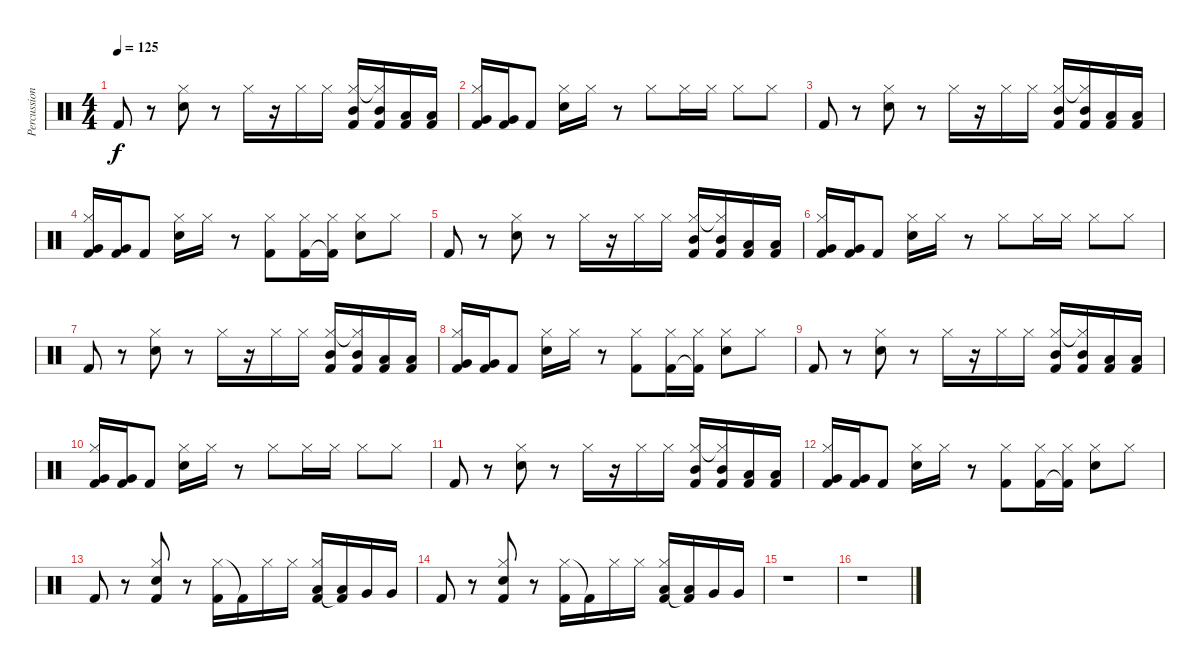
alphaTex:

\track ("Percussion" "Percussion") {instrument percussion}
\staff {score}
\articulation defaults
\ts (4 4)
\tempo 125
\clef neutral
\ks c "Kick (hit) 2".8{dy f}
r.8 ("Hi-Hat (closed)" "Electric Snare (hit)").8 r.8 "Hi-Hat (closed)".16 r.16 "Hi-Hat (closed)".16 "Hi-Hat (closed)".16 ("Hi-Hat (closed)" "Mid Tom (hit)" "Kick (hit) 2").16 ("Hi-Hat (closed)"{t} "Mid Tom (hit)" "Kick (hit) 2").16 ("Low Tom (hit)" "Kick (hit) 2").16 ("Low Tom (hit)" "Kick (hit) 2").16 |
("Hi-Hat (closed)" "Very Low Tom (hit)" "Kick (hit) 2").16 ("Very Low Tom (hit)" "Kick (hit) 2").16 "Kick (hit) 2".8 ("Hi-Hat (closed)" "Electric Snare (hit)").16 "Hi-Hat (closed)".16 r.8 "Hi-Hat (closed)".8 "Hi-Hat (closed)".16 "Hi-Hat (closed)".16 "Hi-Hat (closed)".8 "Hi-Hat (closed)".8 |
"Kick (hit) 2".8 r.8 ("Hi-Hat (closed)" "Electric Snare (hit)").8 r.8 "Hi-Hat (closed)".16 r.16 "Hi-Hat (closed)".16 "Hi-Hat (closed)".16 ("Hi-Hat (closed)" "Mid Tom (hit)" "Kick (hit) 2").16 ("Hi-Hat (closed)"{t} "Mid Tom (hit)" "Kick (hit) 2").16 ("Low Tom (hit)" "Kick (hit) 2").16 ("Low Tom (hit)" "Kick (hit) 2").16 |
("Hi-Hat (closed)" "Very Low Tom (hit)" "Kick (hit) 2").16 ("Very Low Tom (hit)" "Kick (hit) 2").16 "Kick (hit) 2".8 ("Hi-Hat (closed)" "Electric Snare (hit)").16 "Hi-Hat (closed)".16 r.8 ("Hi-Hat (closed)" "Kick (hit) 2").8 ("Hi-Hat (closed)" "Kick (hit) 2").16 ("Hi-Hat (closed)" "Kick (hit) 2"{t}).16 ("Hi-Hat (closed)" "Electric Snare (hit)").8 "Hi-Hat (closed)".8 |
"Kick (hit) 2".8 r.8 ("Hi-Hat (closed)" "Electric Snare (hit)").8 r.8 "Hi-Hat (closed)".16 r.16 "Hi-Hat (closed)".16 "Hi-Hat (closed)".16 ("Hi-Hat (closed)" "Mid Tom (hit)" "Kick (hit) 2").16 ("Hi-Hat (closed)"{t} "Mid Tom (hit)" "Kick (hit) 2").16 ("Low Tom (hit)" "Kick (hit) 2").16 ("Low Tom (hit)" "Kick (hit) 2").16 |
("Hi-Hat (closed)" "Very Low Tom (hit)" "Kick (hit) 2").16 ("Very Low Tom (hit)" "Kick (hit) 2").16 "Kick (hit) 2".8 ("Hi-Hat (closed)" "Electric Snare (hit)").16 "Hi-Hat (closed)".16 r.8 "Hi-Hat (closed)".8 "Hi-Hat (closed)".16 "Hi-Hat (closed)".16 "Hi-Hat (closed)".8 "Hi-Hat (closed)".8 |
"Kick (hit) 2".8 r.8 ("Hi-Hat (closed)" "Electric Snare (hit)").8 r.8 "Hi-Hat (closed)".16 r.16 "Hi-Hat (closed)".16 "Hi-Hat (closed)".16 ("Hi-Hat (closed)" "Mid Tom (hit)" "Kick (hit) 2").16 ("Hi-Hat (closed)"{t} "Mid Tom (hit)" "Kick (hit) 2").16 ("Low Tom (hit)" "Kick (hit) 2").16 ("Low Tom (hit)" "Kick (hit) 2").16 |
("Hi-Hat (closed)" "Very Low Tom (hit)" "Kick (hit) 2").16 ("Very Low Tom (hit)" "Kick (hit) 2").16 "Kick (hit) 2".8 ("Hi-Hat (closed)" "Electric Snare (hit)").16 "Hi-Hat (closed)".16 r.8 ("Hi-Hat (closed)" "Kick (hit) 2").8 ("Hi-Hat (closed)" "Kick (hit) 2").16 ("Hi-Hat (closed)" "Kick (hit) 2"{t}).16 ("Hi-Hat (closed)" "Electric Snare (hit)").8 "Hi-Hat (closed)".8 |
"Kick (hit) 2".8 r.8 ("Hi-Hat (closed)" "Electric Snare (hit)").8 r.8 "Hi-Hat (closed)".16 r.16 "Hi-Hat (closed)".16 "Hi-Hat (closed)".16 ("Hi-Hat (closed)" "Mid Tom (hit)" "Kick (hit) 2").16 ("Hi-Hat (closed)"{t} "Mid Tom (hit)" "Kick (hit) 2").16 ("Low Tom (hit)" "Kick (hit) 2").16 ("Low Tom (hit)" "Kick (hit) 2").16 |
("Hi-Hat (closed)" "Very Low Tom (hit)" "Kick (hit) 2").16 ("Very Low Tom (hit)" "Kick (hit) 2").16 "Kick (hit) 2".8 ("Hi-Hat (closed)" "Electric Snare (hit)").16 "Hi-Hat (closed)".16 r.8 "Hi-Hat (closed)".8 "Hi-Hat (closed)".16 "Hi-Hat (closed)".16 "Hi-Hat (closed)".8 "Hi-Hat (closed)".8 |
"Kick (hit) 2".8 r.8 ("Hi-Hat (closed)" "Electric Snare (hit)").8 r.8 "Hi-Hat (closed)".16 r.16 "Hi-Hat (closed)".16 "Hi-Hat (closed)".16 ("Hi-Hat (closed)" "Mid Tom (hit)" "Kick (hit) 2").16 ("Hi-Hat (closed)"{t} "Mid Tom (hit)" "Kick (hit) 2").16 ("Low Tom (hit)" "Kick (hit) 2").16 ("Low Tom (hit)" "Kick (hit) 2").16 |
("Hi-Hat (closed)" "Very Low Tom (hit)" "Kick (hit) 2").16 ("Very Low Tom (hit)" "Kick (hit) 2").16 "Kick (hit) 2".8 ("Hi-Hat (closed)" "Electric Snare (hit)").16 "Hi-Hat (closed)".16 r.8 ("Hi-Hat (closed)" "Kick (hit) 2").8 ("Hi-Hat (closed)" "Kick (hit) 2").16 ("Hi-Hat (closed)" "Kick (hit) 2"{t}).16 ("Hi-Hat (closed)" "Electric Snare (hit)").8 "Hi-Hat (closed)".8 |
"Kick (hit) 2".8 r.8 ("Hi-Hat (closed)" "Electric Snare (hit)" "Kick (hit) 2").8 r.8 ("Hi-Hat (closed)" "Kick (hit) 2").16 "Kick (hit) 2"{t}.16 "Hi-Hat (closed)".16 "Hi-Hat (closed)".16 ("Hi-Hat (closed)" "Low Tom (hit)" "Kick (hit) 2").16 ("Low Tom (hit)" "Kick (hit) 2"{t}).16 "Very Low Tom (hit)".16 "Very Low Tom (hit)".16 |
"Kick (hit) 2".8 r.8 ("Hi-Hat (closed)" "Electric Snare (hit)" "Kick (hit) 2").8 r.8 ("Hi-Hat (closed)" "Kick (hit) 2").16 "Kick (hit) 2"{t}.16 "Hi-Hat (closed)".16 "Hi-Hat (closed)".16 ("Hi-Hat (closed)" "Low Tom (hit)" "Kick (hit) 2").16 ("Low Tom (hit)" "Kick (hit) 2"{t}).16 "Very Low Tom (hit)".16 "Very Low Tom (hit)".16 |
r.1 |
r.1
